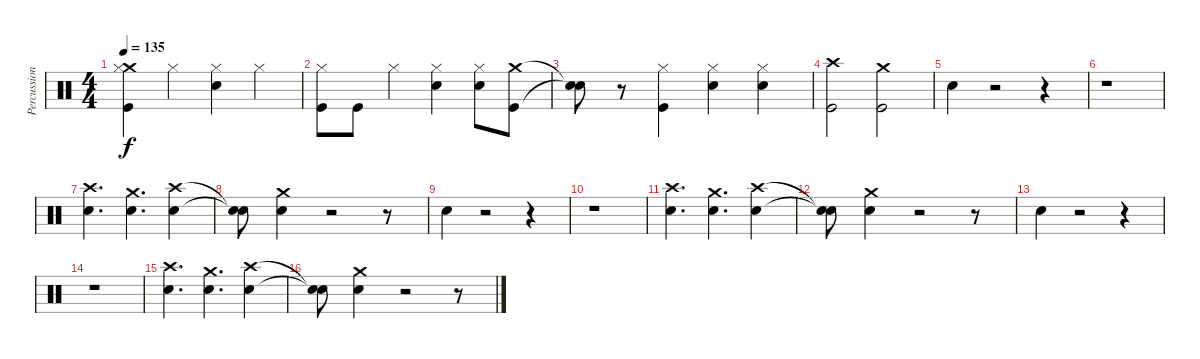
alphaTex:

\track ("Percussions" "Percussion") {instrument percussion}
\staff {score}
\articulation defaults
\ts (4 4)
\tempo 135
\clef neutral
\ks c
("Crash medium (hit)" "Kick (hit)" "Hi-Hat (closed)").4{dy f} "Hi-Hat (closed)".4 ("Snare (hit) 2" "Hi-Hat (closed)").4 "Hi-Hat (closed)".4 |
("Kick (hit)" "Hi-Hat (closed)").8 "Kick (hit)".8 "Hi-Hat (closed)".4 ("Snare (hit) 2" "Hi-Hat (closed)").4 ("Snare (hit) 2" "Hi-Hat (closed)").8 ("Kick (hit)" "Crash medium (hit)").8 |
("Snare (hit)"{t} "Snare (hit)"{t}).8 r.8 ("Kick (hit)" "Hi-Hat (closed)").4 ("Snare (hit) 2" "Hi-Hat (closed)").4 ("Snare (hit) 2" "Hi-Hat (closed)").4 |
("Crash high (hit)" "Kick (hit)").2 ("Crash medium (hit)" "Kick (hit)").2 |
"Snare (hit) 2".4 r.2 r.4 |
r.1 |
("Snare (hit) 2" "Crash high (hit)").4{d} ("Snare (hit) 2" "Crash medium (hit)").4{d} ("Crash high (hit)" "Snare (hit) 2").4 |
("Snare (hit)"{t} "Snare (hit)"{t}).8 ("Snare (hit) 2" "Crash medium (hit)").4 r.2 r.8 |
"Snare (hit) 2".4 r.2 r.4 |
r.1 |
("Snare (hit) 2" "Crash high (hit)").4{d} ("Snare (hit) 2" "Crash medium (hit)").4{d} ("Snare (hit) 2" "Crash high (hit)").4 |
("Snare (hit)"{t} "Snare (hit)"{t}).8 ("Snare (hit) 2" "Crash medium (hit)").4 r.2 r.8 |
"Snare (hit) 2".4 r.2 r.4 |
r.1 |
("Snare (hit) 2" "Crash high (hit)").4{d} ("Snare (hit) 2" "Crash medium (hit)").4{d} ("Snare (hit) 2" "Crash high (hit)").4 |
("Snare (hit)"{t} "Snare (hit)"{t}).8 ("Snare (hit) 2" "Crash medium (hit)").4 r.2 r.8
